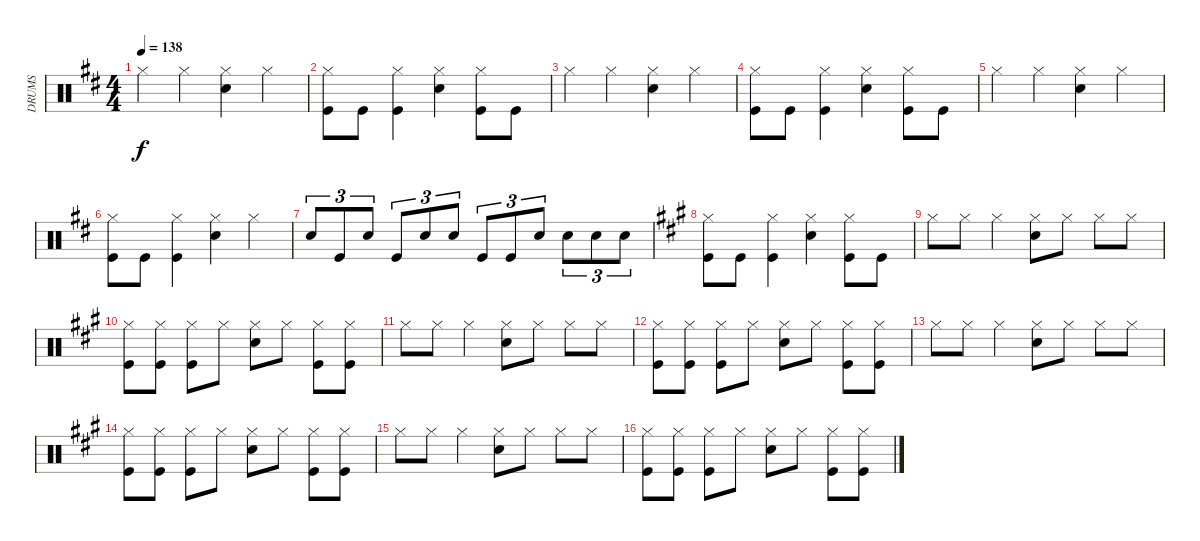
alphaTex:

\track ("DRUMS" "DRUMS") {instrument percussion}
\staff {score}
\articulation defaults
\ts (4 4)
\tempo 138
\clef neutral
\ks bminor "Hi-Hat (closed)".4{dy f} "Hi-Hat (closed)".4
("Hi-Hat (closed)" "Snare (hit) 2").4 "Hi-Hat (closed)".4 |
("Hi-Hat (closed)" "Kick (hit)").8 "Kick (hit)".8 ("Hi-Hat (closed)" "Kick (hit)").4 ("Hi-Hat (closed)" "Snare (hit) 2").4 ("Hi-Hat (closed)" "Kick (hit)").8 "Kick (hit)".8 |
"Hi-Hat (closed)".4 "Hi-Hat (closed)".4 ("Hi-Hat (closed)" "Snare (hit) 2").4 "Hi-Hat (closed)".4 |
("Hi-Hat (closed)" "Kick (hit)").8 "Kick (hit)".8 ("Hi-Hat (closed)" "Kick (hit)").4 ("Hi-Hat (closed)" "Snare (hit) 2").4 ("Hi-Hat (closed)" "Kick (hit)").8 "Kick (hit)".8 |
"Hi-Hat (closed)".4 "Hi-Hat (closed)".4 ("Hi-Hat (closed)" "Snare (hit) 2").4 "Hi-Hat (closed)".4 |
("Hi-Hat (closed)" "Kick (hit)").8 "Kick (hit)".8 ("Hi-Hat (closed)" "Kick (hit)").4 ("Hi-Hat (closed)" "Snare (hit) 2").4 "Hi-Hat (closed)".4 |
"Snare (hit) 2".8{tu (3 2)} "Kick (hit)".8{tu (3 2)} "Snare (hit) 2".8{tu (3 2)} "Kick (hit)".8{tu (3 2)} "Snare (hit) 2".8{tu (3 2)} "Snare (hit) 2".8{tu (3 2)} "Kick (hit)".8{tu (3 2)} "Kick (hit)".8{tu (3 2)} "Snare (hit) 2".8{tu (3 2)} "Snare (hit) 2".8{tu (3 2)} "Snare (hit) 2".8{tu (3 2)} "Snare (hit) 2".8{tu (3 2)} |
\ks f#minor
("Hi-Hat (closed)" "Kick (hit)").8 "Kick (hit)".8 ("Hi-Hat (closed)" "Kick (hit)").4 ("Hi-Hat (closed)" "Snare (hit) 2").4 ("Hi-Hat (closed)" "Kick (hit)").8 "Kick (hit)".8 |
"Hi-Hat (closed)".8 "Hi-Hat (closed)".8 "Hi-Hat (closed)".4 ("Hi-Hat (closed)" "Snare (hit) 2").8 "Hi-Hat (closed)".8 "Hi-Hat (closed)".8 "Hi-Hat (closed)".8 |
("Hi-Hat (closed)" "Kick (hit)").8 ("Hi-Hat (closed)" "Kick (hit)").8 ("Hi-Hat (closed)" "Kick (hit)").8 "Hi-Hat (closed)".8 ("Hi-Hat (closed)" "Snare (hit) 2").8 "Hi-Hat (closed)".8 ("Hi-Hat (closed)" "Kick (hit)").8 ("Hi-Hat (closed)" "Kick (hit)").8 |
"Hi-Hat (closed)".8 "Hi-Hat (closed)".8 "Hi-Hat (closed)".4 ("Hi-Hat (closed)" "Snare (hit) 2").8 "Hi-Hat (closed)".8 "Hi-Hat (closed)".8 "Hi-Hat (closed)".8 |
("Hi-Hat (closed)" "Kick (hit)").8 ("Hi-Hat (closed)" "Kick (hit)").8 ("Hi-Hat (closed)" "Kick (hit)").8 "Hi-Hat (closed)".8 ("Hi-Hat (closed)" "Snare (hit) 2").8 "Hi-Hat (closed)".8 ("Hi-Hat (closed)" "Kick (hit)").8 ("Hi-Hat (closed)" "Kick (hit)").8 |
"Hi-Hat (closed)".8 "Hi-Hat (closed)".8 "Hi-Hat (closed)".4 ("Hi-Hat (closed)" "Snare (hit) 2").8 "Hi-Hat (closed)".8 "Hi-Hat (closed)".8 "Hi-Hat (closed)".8 |
("Hi-Hat (closed)" "Kick (hit)").8 ("Hi-Hat (closed)" "Kick (hit)").8 ("Hi-Hat (closed)" "Kick (hit)").8 "Hi-Hat (closed)".8 ("Hi-Hat (closed)" "Snare (hit) 2").8 "Hi-Hat (closed)".8 ("Hi-Hat (closed)" "Kick (hit)").8 ("Hi-Hat (closed)" "Kick (hit)").8 |
"Hi-Hat (closed)".8 "Hi-Hat (closed)".8 "Hi-Hat (closed)".4 ("Hi-Hat (closed)" "Snare (hit) 2").8 "Hi-Hat (closed)".8 "Hi-Hat (closed)".8 "Hi-Hat (closed)".8 |
("Hi-Hat (closed)" "Kick (hit)").8 ("Hi-Hat (closed)" "Kick (hit)").8 ("Hi-Hat (closed)" "Kick (hit)").8 "Hi-Hat (closed)".8 ("Hi-Hat (closed)" "Snare (hit) 2").8 "Hi-Hat (closed)".8 ("Hi-Hat (closed)" "Kick (hit)").8 ("Hi-Hat (closed)" "Kick (hit)").8
